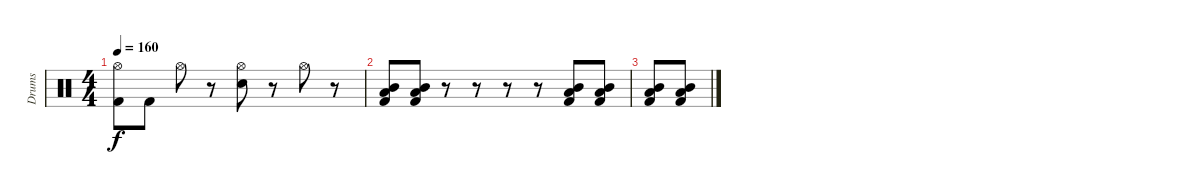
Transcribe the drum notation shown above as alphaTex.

\track ("Drums" "Drums") {instrument percussion}
\staff {score}
\articulation defaults
\ts (4 4)
\tempo 160
\clef neutral
\ks c
("Kick (hit) 2" "Hi-Hat (open)").8{dy f} "Kick (hit) 2".8 "Hi-Hat (open)".8 r.8 ("Electric Snare (hit)" "Hi-Hat (open)").8 r.8 "Hi-Hat (open)".8 r.8 |
("Kick (hit) 2" "Low Floor Tom (hit)" "Mid Tom (hit)").8 ("Kick (hit) 2" "Low Floor Tom (hit)" "Mid Tom (hit)").8 r.8 r.8 r.8 r.8 ("Kick (hit) 2" "Low Floor Tom (hit)" "Mid Tom (hit)").8 ("Kick (hit) 2" "Low Floor Tom (hit)" "Mid Tom (hit)").8 |
("Kick (hit) 2" "Low Floor Tom (hit)" "Mid Tom (hit)").8 ("Kick (hit) 2" "Low Floor Tom (hit)" "Mid Tom (hit)").8
